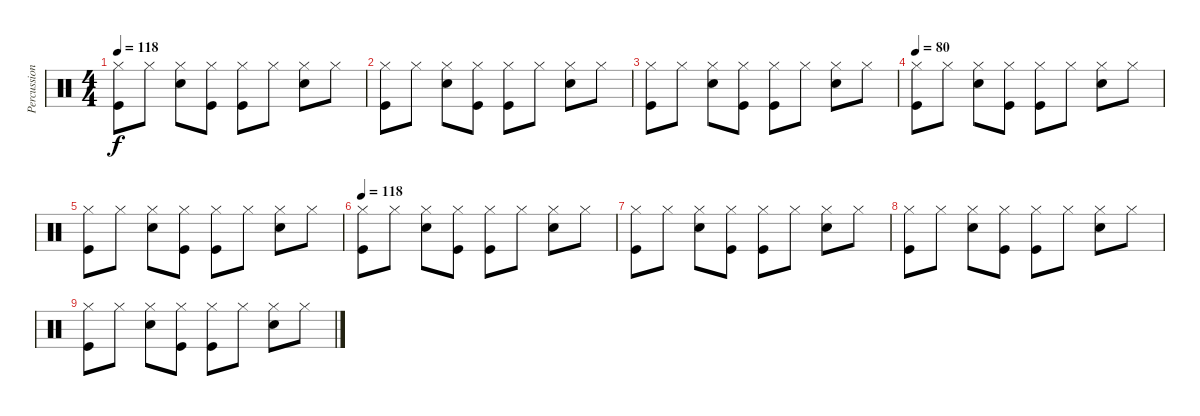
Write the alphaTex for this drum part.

\track ("Percussions" "Percussion") {instrument percussion}
\staff {score}
\articulation defaults
\ts (4 4)
\tempo 118
\clef neutral
\ks c
("Hi-Hat (closed)" "Kick (hit)").8{dy f} "Hi-Hat (closed)".8 ("Hi-Hat (closed)" "Snare (hit) 2").8 ("Hi-Hat (closed)" "Kick (hit)").8 ("Hi-Hat (closed)" "Kick (hit)").8 "Hi-Hat (closed)".8 ("Hi-Hat (closed)" "Snare (hit) 2").8 "Hi-Hat (closed)".8 |
("Hi-Hat (closed)" "Kick (hit)").8 "Hi-Hat (closed)".8 ("Hi-Hat (closed)" "Snare (hit) 2").8 ("Hi-Hat (closed)" "Kick (hit)").8 ("Hi-Hat (closed)" "Kick (hit)").8 "Hi-Hat (closed)".8 ("Hi-Hat (closed)" "Snare (hit) 2").8 "Hi-Hat (closed)".8 |
("Hi-Hat (closed)" "Kick (hit)").8 "Hi-Hat (closed)".8 ("Hi-Hat (closed)" "Snare (hit) 2").8 ("Hi-Hat (closed)" "Kick (hit)").8 ("Hi-Hat (closed)" "Kick (hit)").8 "Hi-Hat (closed)".8 ("Hi-Hat (closed)" "Snare (hit) 2").8 "Hi-Hat (closed)".8 |
\tempo 80
("Hi-Hat (closed)" "Kick (hit)").8 "Hi-Hat (closed)".8 ("Hi-Hat (closed)" "Snare (hit) 2").8 ("Hi-Hat (closed)" "Kick (hit)").8 ("Hi-Hat (closed)" "Kick (hit)").8 "Hi-Hat (closed)".8 ("Hi-Hat (closed)" "Snare (hit) 2").8 "Hi-Hat (closed)".8 |
("Hi-Hat (closed)" "Kick (hit)").8 "Hi-Hat (closed)".8 ("Hi-Hat (closed)" "Snare (hit) 2").8 ("Hi-Hat (closed)" "Kick (hit)").8 ("Hi-Hat (closed)" "Kick (hit)").8 "Hi-Hat (closed)".8 ("Hi-Hat (closed)" "Snare (hit) 2").8 "Hi-Hat (closed)".8 |
\tempo 118
("Hi-Hat (closed)" "Kick (hit)").8 "Hi-Hat (closed)".8 ("Hi-Hat (closed)" "Snare (hit) 2").8 ("Hi-Hat (closed)" "Kick (hit)").8 ("Hi-Hat (closed)" "Kick (hit)").8 "Hi-Hat (closed)".8 ("Hi-Hat (closed)" "Snare (hit) 2").8 "Hi-Hat (closed)".8 |
("Hi-Hat (closed)" "Kick (hit)").8 "Hi-Hat (closed)".8 ("Hi-Hat (closed)" "Snare (hit) 2").8 ("Hi-Hat (closed)" "Kick (hit)").8 ("Hi-Hat (closed)" "Kick (hit)").8 "Hi-Hat (closed)".8 ("Hi-Hat (closed)" "Snare (hit) 2").8 "Hi-Hat (closed)".8 |
("Hi-Hat (closed)" "Kick (hit)").8 "Hi-Hat (closed)".8 ("Hi-Hat (closed)" "Snare (hit) 2").8 ("Hi-Hat (closed)" "Kick (hit)").8 ("Hi-Hat (closed)" "Kick (hit)").8 "Hi-Hat (closed)".8 ("Hi-Hat (closed)" "Snare (hit) 2").8 "Hi-Hat (closed)".8 |
("Hi-Hat (closed)" "Kick (hit)").8 "Hi-Hat (closed)".8 ("Hi-Hat (closed)" "Snare (hit) 2").8 ("Hi-Hat (closed)" "Kick (hit)").8 ("Hi-Hat (closed)" "Kick (hit)").8 "Hi-Hat (closed)".8 ("Hi-Hat (closed)" "Snare (hit) 2").8 "Hi-Hat (closed)".8
